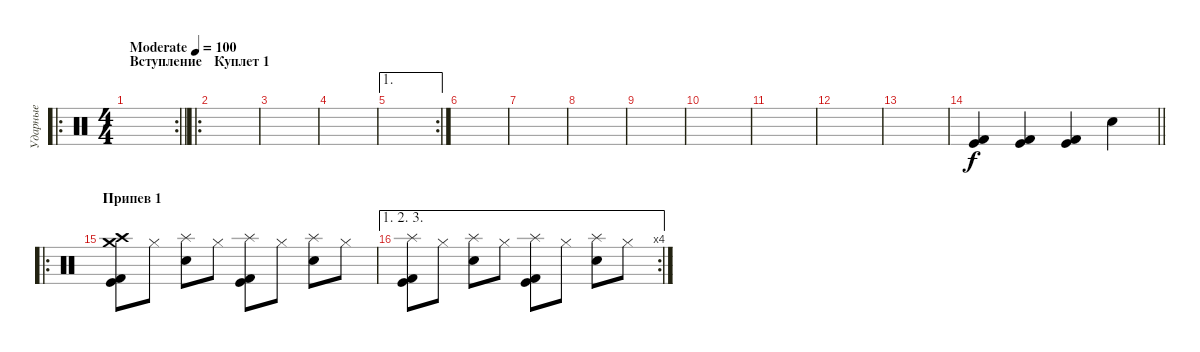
\track ("Ударные" "Ударные") {instrument percussion}
\staff {score}
\articulation defaults
\ro
\rc 2
\ts (4 4)
\section ("" "Вступление")
\tempo (100 "Moderate")
\clef neutral
\barLineRight lightlight
\ks c
|
\ro
\section ("" "Куплет 1")
|
|
|
\ae 1
\rc 2
|
|
|
|
|
|
|
|
|
\barLineRight lightlight
("Kick (hit) 2" "Kick (hit)").4 ("Kick (hit) 2" "Kick (hit)").4 ("Kick (hit) 2" "Kick (hit)").4 "Snare (hit) 2".4 |
\ro
\section ("" "Припев 1")
("Crash high (hit)" "Crash medium (hit)" "Kick (hit) 2" "Kick (hit)").8 "Hi-Hat (closed)".8 ("Splash (hit)" "Snare (hit) 2").8 "Hi-Hat (closed)".8 ("Splash (hit)" "Kick (hit) 2" "Kick (hit)").8 "Hi-Hat (closed)".8 ("Splash (hit)" "Snare (hit) 2").8 "Hi-Hat (closed)".8 |
\ae (1 2 3)
\rc 4
("Splash (hit)" "Kick (hit) 2" "Kick (hit)").8 "Hi-Hat (closed)".8 ("Splash (hit)" "Snare (hit) 2").8 "Hi-Hat (closed)".8 ("Splash (hit)" "Kick (hit) 2" "Kick (hit)").8 "Hi-Hat (closed)".8 ("Splash (hit)" "Snare (hit) 2").8 "Hi-Hat (closed)".8
